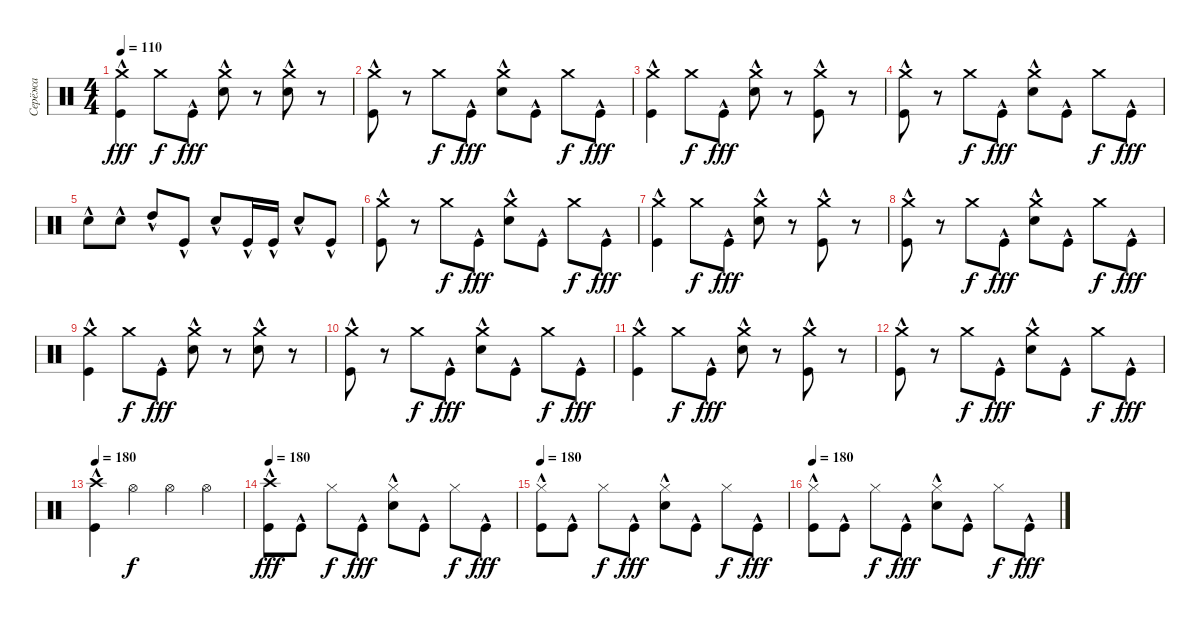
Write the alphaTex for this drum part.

\track ("Серёжа" "Серёжа") {instrument percussion}
\staff {score}
\articulation defaults
\ts (4 4)
\tempo 110
\clef neutral
\ks c
("Crash medium (hit)" "Kick (hit)"{hac}).4{dy fff} "Crash medium (hit)".8{dy f} "Kick (hit)"{hac}.8{dy fff} ("Crash medium (hit)" "Snare (hit) 2"{hac}).8 r.8 ("Crash medium (hit)" "Snare (hit) 2"{hac}).8 r.8 |
("Crash medium (hit)" "Kick (hit)"{hac}).8 r.8 "Crash medium (hit)".8{dy f} "Kick (hit)"{hac}.8{dy fff} ("Crash medium (hit)" "Snare (hit) 2"{hac}).8 "Kick (hit)"{hac}.8 "Crash medium (hit)".8{dy f} "Kick (hit)"{hac}.8{dy fff} |
("Crash medium (hit)" "Kick (hit)"{hac}).4 "Crash medium (hit)".8{dy f} "Kick (hit)"{hac}.8{dy fff} ("Crash medium (hit)" "Snare (hit) 2"{hac}).8 r.8 ("Crash medium (hit)" "Kick (hit)"{hac}).8 r.8 |
("Crash medium (hit)" "Kick (hit)"{hac}).8 r.8 "Crash medium (hit)".8{dy f} "Kick (hit)"{hac}.8{dy fff} ("Crash medium (hit)" "Snare (hit) 2"{hac}).8 "Kick (hit)"{hac}.8 "Crash medium (hit)".8{dy f} "Kick (hit)"{hac}.8{dy fff} |
"Snare (hit) 2"{hac}.8 "Snare (hit) 2"{hac}.8 "High Tom (hit)"{hac}.8 "Kick (hit)"{hac}.8 "Snare (hit) 2"{hac}.8 "Kick (hit)"{hac}.16 "Kick (hit)"{hac}.16 "Snare (hit) 2"{hac}.8 "Kick (hit)"{hac}.8 |
("Crash medium (hit)"{hac} "Kick (hit)"{hac}).8 r.8 "Crash medium (hit)".8{dy f} "Kick (hit)"{hac}.8{dy fff} ("Crash medium (hit)" "Snare (hit) 2"{hac}).8 "Kick (hit)"{hac}.8 "Crash medium (hit)".8{dy f} "Kick (hit)"{hac}.8{dy fff} |
("Crash medium (hit)" "Kick (hit)"{hac}).4 "Crash medium (hit)".8{dy f} "Kick (hit)"{hac}.8{dy fff} ("Crash medium (hit)" "Snare (hit) 2"{hac}).8 r.8 ("Crash medium (hit)" "Kick (hit)"{hac}).8 r.8 |
("Crash medium (hit)" "Kick (hit)"{hac}).8 r.8 "Crash medium (hit)".8{dy f} "Kick (hit)"{hac}.8{dy fff} ("Crash medium (hit)" "Snare (hit) 2"{hac}).8 "Kick (hit)"{hac}.8 "Crash medium (hit)".8{dy f} "Kick (hit)"{hac}.8{dy fff} |
("Crash medium (hit)" "Kick (hit)"{hac}).4 "Crash medium (hit)".8{dy f} "Kick (hit)"{hac}.8{dy fff} ("Crash medium (hit)" "Snare (hit) 2"{hac}).8 r.8 ("Crash medium (hit)" "Snare (hit) 2"{hac}).8 r.8 |
("Crash medium (hit)" "Kick (hit)"{hac}).8 r.8 "Crash medium (hit)".8{dy f} "Kick (hit)"{hac}.8{dy fff} ("Crash medium (hit)" "Snare (hit) 2"{hac}).8 "Kick (hit)"{hac}.8 "Crash medium (hit)".8{dy f} "Kick (hit)"{hac}.8{dy fff} |
("Crash medium (hit)" "Kick (hit)"{hac}).4 "Crash medium (hit)".8{dy f} "Kick (hit)"{hac}.8{dy fff} ("Crash medium (hit)" "Snare (hit) 2"{hac}).8 r.8 ("Crash medium (hit)" "Kick (hit)"{hac}).8 r.8 |
("Crash medium (hit)" "Kick (hit)"{hac}).8 r.8 "Crash medium (hit)".8{dy f} "Kick (hit)"{hac}.8{dy fff} ("Crash medium (hit)" "Snare (hit) 2"{hac}).8 "Kick (hit)"{hac}.8 "Crash medium (hit)".8{dy f} "Kick (hit)"{hac}.8{dy fff} |
\tempo 180
("Crash high (hit)" "Kick (hit)"{hac}).4 "Hi-Hat (open)".4{dy f} "Hi-Hat (open)".4 "Hi-Hat (open)".4 |
\tempo 180
("Crash high (hit)"{hac} "Kick (hit)"{hac}).8{dy fff} "Kick (hit)"{hac}.8 "Hi-Hat (closed)".8{dy f} "Kick (hit)"{hac}.8{dy fff} ("Hi-Hat (closed)" "Snare (hit) 2"{hac}).8 "Kick (hit)"{hac}.8 "Hi-Hat (closed)".8{dy f} "Kick (hit)"{hac}.8{dy fff} |
\tempo 180
("Hi-Hat (closed)" "Kick (hit)"{hac}).8 "Kick (hit)"{hac}.8 "Hi-Hat (closed)".8{dy f} "Kick (hit)"{hac}.8{dy fff} ("Hi-Hat (closed)" "Snare (hit) 2"{hac}).8 "Kick (hit)"{hac}.8 "Hi-Hat (closed)".8{dy f} "Kick (hit)"{hac}.8{dy fff} |
\tempo 180
("Hi-Hat (closed)" "Kick (hit)"{hac}).8 "Kick (hit)"{hac}.8 "Hi-Hat (closed)".8{dy f} "Kick (hit)"{hac}.8{dy fff} ("Hi-Hat (closed)" "Snare (hit) 2"{hac}).8 "Kick (hit)"{hac}.8 "Hi-Hat (closed)".8{dy f} "Kick (hit)"{hac}.8{dy fff}
